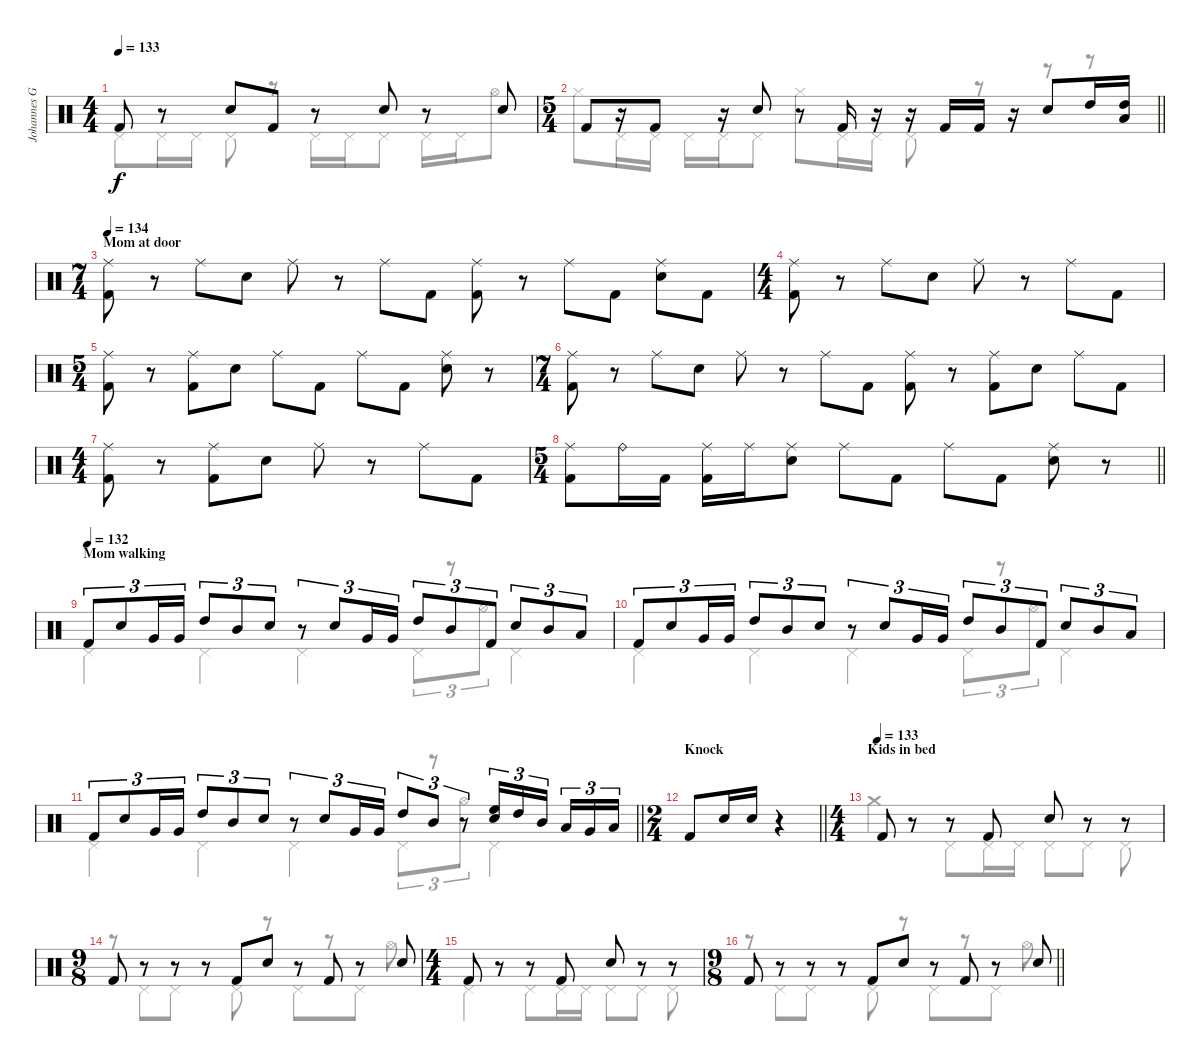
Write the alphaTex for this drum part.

\track ("Johannes Grossmann" "Johannes G") {instrument percussion}
\staff {score}
\articulation defaults
\voice
\ts (4 4)
\tempo 133
\clef neutral
\ks c "Kick (hit) 2".8{dy f}
r.8 "Snare (hit) 2".8 "Kick (hit) 2".8 r.8 "Snare (hit) 2".8 r.8 "Snare (hit) 2".8 |
\ts (5 4)
\barLineRight lightlight "Kick (hit) 2".8
r.16 "Kick (hit) 2".8 r.16 "Snare (hit) 2".8 r.8 "Kick (hit) 2".16 r.16 r.16 "Kick (hit) 2".16 "Kick (hit) 2".16 r.16 "Snare (hit) 2".8 "High Tom (hit)".16 ("High Tom (hit)" "Low Tom (hit)").16 |
\ts (7 4)
\section ("" "Mom at door")
\tempo 134
("Ride (middle)" "Kick (hit) 2").8 r.8 "Ride (middle)".8 "Snare (hit) 2".8 "Ride (middle)".8 r.8 "Ride (middle)".8 "Kick (hit) 2".8 ("Ride (middle)" "Kick (hit) 2").8 r.8 "Ride (middle)".8 "Kick (hit) 2".8 ("Ride (middle)" "Snare (hit) 2").8 "Kick (hit) 2".8 |
\ts (4 4)
("Ride (middle)" "Kick (hit) 2").8 r.8 "Ride (middle)".8 "Snare (hit) 2".8 "Ride (middle)".8 r.8 "Ride (middle)".8 "Kick (hit) 2".8 |
\ts (5 4)
("Ride (middle)" "Kick (hit) 2").8 r.8 ("Ride (middle)" "Kick (hit) 2").8 "Snare (hit) 2".8 "Ride (middle)".8 "Kick (hit) 2".8 "Ride (middle)".8 "Kick (hit) 2".8 ("Ride (middle)" "Snare (hit) 2").8 r.8 |
\ts (7 4)
("Ride (middle)" "Kick (hit) 2").8 r.8 "Ride (middle)".8 "Snare (hit) 2".8 "Ride (middle)".8 r.8 "Ride (middle)".8 "Kick (hit) 2".8 ("Ride (middle)" "Kick (hit) 2").8 r.8 ("Ride (middle)" "Kick (hit) 2").8 "Snare (hit) 2".8 "Ride (middle)".8 "Kick (hit) 2".8 |
\ts (4 4)
("Ride (middle)" "Kick (hit) 2").8 r.8 ("Ride (middle)" "Kick (hit) 2").8 "Snare (hit) 2".8 "Ride (middle)".8 r.8 "Ride (middle)".8 "Kick (hit) 2".8 |
\ts (5 4)
\barLineRight lightlight
("Ride (middle)" "Kick (hit) 2").8 "Ride (bell)".16 "Kick (hit) 2".16 ("Ride (middle)" "Kick (hit) 2").16 "Ride (middle)".16 ("Ride (middle)" "Snare (hit) 2").8 "Ride (middle)".8 "Kick (hit) 2".8 "Ride (middle)".8 "Kick (hit) 2".8 ("Ride (middle)" "Snare (hit) 2").8 r.8 |
\section ("" "Mom walking")
\tempo (132)
"Kick (hit) 2".8{tu (3 2)} "Snare (hit) 2".8{tu (3 2)} "Very Low Tom (hit)".16{tu (3 2)} "Very Low Tom (hit)".16{tu (3 2)} "High Tom (hit)".8{tu (3 2)} "Mid Tom (hit)".8{tu (3 2)} "Snare (hit) 2".8{tu (3 2)} r.8{tu (3 2)} "Electric Snare (hit)".8{tu (3 2)} "Very Low Tom (hit)".16{tu (3 2)} "Very Low Tom (hit)".16{tu (3 2)} "High Tom (hit)".8{tu (3 2)} "Mid Tom (hit)".8{tu (3 2)} "Kick (hit) 2".8{tu (3 2)} "Snare (hit) 2".8{tu (3 2)} "Mid Tom (hit)".8{tu (3 2)} "Low Tom (hit)".8{tu (3 2)} |
"Kick (hit) 2".8{tu (3 2)} "Snare (hit) 2".8{tu (3 2)} "Very Low Tom (hit)".16{tu (3 2)} "Very Low Tom (hit)".16{tu (3 2)} "High Tom (hit)".8{tu (3 2)} "Mid Tom (hit)".8{tu (3 2)} "Snare (hit) 2".8{tu (3 2)} r.8{tu (3 2)} "Electric Snare (hit)".8{tu (3 2)} "Very Low Tom (hit)".16{tu (3 2)} "Very Low Tom (hit)".16{tu (3 2)} "High Tom (hit)".8{tu (3 2)} "Mid Tom (hit)".8{tu (3 2)} "Kick (hit) 2".8{tu (3 2)} "Snare (hit) 2".8{tu (3 2)} "Mid Tom (hit)".8{tu (3 2)} "Low Tom (hit)".8{tu (3 2)} |
\barLineRight lightlight "Kick (hit) 2".8{tu (3 2)} "Snare (hit) 2".8{tu (3 2)} "Very Low Tom (hit)".16{tu (3 2)} "Very Low Tom (hit)".16{tu (3 2)} "High Tom (hit)".8{tu (3 2)} "Mid Tom (hit)".8{tu (3 2)} "Snare (hit) 2".8{tu (3 2)}
r.8{tu (3 2)} "Electric Snare (hit)".8{tu (3 2)} "Very Low Tom (hit)".16{tu (3 2)} "Very Low Tom (hit)".16{tu (3 2)} "High Tom (hit)".8{tu (3 2)} "Mid Tom (hit)".8{tu (3 2)} r.8{tu (3 2)} ("High Floor Tom (hit)" "Electric Snare (hit)").16{tu (3 2)} "High Tom (hit)".16{tu (3 2)} "Mid Tom (hit)".16{tu (3 2) beam splitsecondary} "Low Tom (hit)".16{tu (3 2)} "Very Low Tom (hit)".16{tu (3 2)} "Low Floor Tom (hit)".16{tu (3 2)} |
\ts (2 4)
\section ("" "Knock")
\barLineRight lightlight "Kick (hit) 2".8 "Snare (hit) 2".16 "Snare (hit) 2".16
r.4 |
\ts (4 4)
\section ("" "Kids in bed")
\tempo (133)
"Kick (hit) 2".8 r.8 r.8 "Kick (hit) 2".8 "Snare (hit) 2".8 r.8 r.8 |
\ts (9 8)
"Kick (hit) 2".8 r.8 r.8 r.8 "Kick (hit) 2".8 "Snare (hit) 2".8 r.8 "Kick (hit) 2".8 r.8 "Snare (hit) 2".8 |
\ts (4 4)
"Kick (hit) 2".8 r.8 r.8 "Kick (hit) 2".8 "Snare (hit) 2".8 r.8 r.8 |
\ts (9 8)
\barLineRight lightlight "Kick (hit) 2".8
r.8 r.8 r.8 "Kick (hit) 2".8 "Snare (hit) 2".8 r.8 "Kick (hit) 2".8 r.8 "Snare (hit) 2".8
\voice
\clef neutral
\ottava regular
\simile none
\ks c "Pedal Hi-Hat (hit)".8{dy f} "Pedal Hi-Hat (hit)".16 "Pedal Hi-Hat (hit)".16 "Pedal Hi-Hat (hit)".8
r.8 "Pedal Hi-Hat (hit)".16 "Pedal Hi-Hat (hit)".16 "Pedal Hi-Hat (hit)".8 "Pedal Hi-Hat (hit)".16 "Pedal Hi-Hat (hit)".16 "Hi-Hat (open)".8 |
\barLineRight lightlight "Hi-Hat (closed)".8 "Pedal Hi-Hat (hit)".16 "Pedal Hi-Hat (hit)".16 "Pedal Hi-Hat (hit)".16 "Pedal Hi-Hat (hit)".16 "Pedal Hi-Hat (hit)".8 "Hi-Hat (closed)".8 "Pedal Hi-Hat (hit)".16 "Pedal Hi-Hat (hit)".16 "Pedal Hi-Hat (hit)".8
r.8 r.8 r.8 |
|
|
|
|
|
\barLineRight lightlight
|
"Pedal Hi-Hat (hit)".4 "Pedal Hi-Hat (hit)".4 "Pedal Hi-Hat (hit)".4 "Pedal Hi-Hat (hit)".8{tu (3 2)} r.8{tu (3 2)} "Hi-Hat (open)".8{tu (3 2)} "Pedal Hi-Hat (hit)".4 |
"Pedal Hi-Hat (hit)".4 "Pedal Hi-Hat (hit)".4 "Pedal Hi-Hat (hit)".4 "Pedal Hi-Hat (hit)".8{tu (3 2)} r.8{tu (3 2)} "Hi-Hat (open)".8{tu (3 2)} "Pedal Hi-Hat (hit)".4 |
\barLineRight lightlight "Pedal Hi-Hat (hit)".4 "Pedal Hi-Hat (hit)".4 "Pedal Hi-Hat (hit)".4 "Pedal Hi-Hat (hit)".8{tu (3 2)}
r.8{tu (3 2)} "Hi-Hat (open)".8{tu (3 2)} "Pedal Hi-Hat (hit)".4 |
\barLineRight lightlight
|
"Crash medium (hit)".4 "Pedal Hi-Hat (hit)".8 "Pedal Hi-Hat (hit)".16 "Pedal Hi-Hat (hit)".16 "Pedal Hi-Hat (hit)".8 "Pedal Hi-Hat (hit)".8 "Pedal Hi-Hat (hit)".8 |
r.8 "Pedal Hi-Hat (hit)".8 "Pedal Hi-Hat (hit)".8 r.8 "Pedal Hi-Hat (hit)".8 r.8 "Pedal Hi-Hat (hit)".8 r.8 "Pedal Hi-Hat (hit)".8 "Hi-Hat (open)".8 |
"Pedal Hi-Hat (hit)".4 "Pedal Hi-Hat (hit)".8 "Pedal Hi-Hat (hit)".16 "Pedal Hi-Hat (hit)".16 "Pedal Hi-Hat (hit)".8 "Pedal Hi-Hat (hit)".8 "Pedal Hi-Hat (hit)".8 |
\barLineRight lightlight
r.8 "Pedal Hi-Hat (hit)".8 "Pedal Hi-Hat (hit)".8 r.8 "Pedal Hi-Hat (hit)".8 r.8 "Pedal Hi-Hat (hit)".8 r.8 "Pedal Hi-Hat (hit)".8 "Hi-Hat (open)".8
